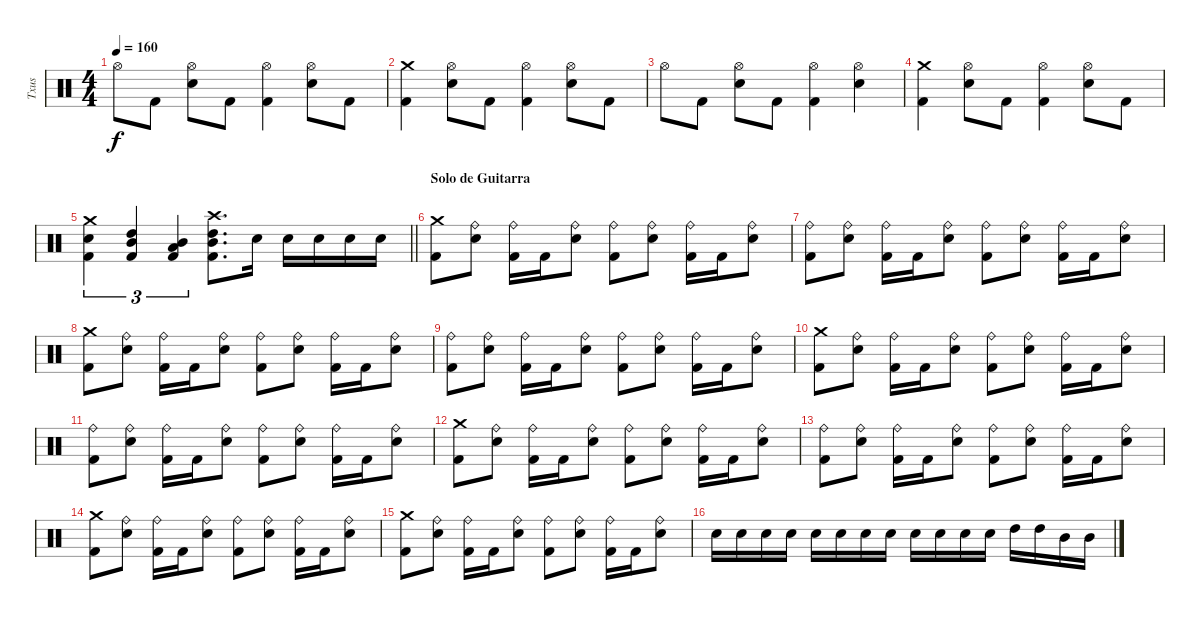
\track ("Txus" "Txus") {instrument percussion}
\staff {score}
\articulation defaults
\ts (4 4)
\tempo 160
\clef neutral
\ks c "Hi-Hat (open)".8{dy f} "Kick (hit) 2".8
("Hi-Hat (open)" "Snare (hit) 2").8 "Kick (hit) 2".8 ("Hi-Hat (open)" "Kick (hit) 2").4 ("Hi-Hat (open)" "Snare (hit) 2").8 "Kick (hit) 2".8 |
("Crash medium (hit)" "Kick (hit) 2").4 ("Hi-Hat (open)" "Snare (hit) 2").8 "Kick (hit) 2".8 ("Hi-Hat (open)" "Kick (hit) 2").4 ("Hi-Hat (open)" "Snare (hit) 2").8 "Kick (hit) 2".8 |
"Hi-Hat (open)".8 "Kick (hit) 2".8 ("Hi-Hat (open)" "Snare (hit) 2").8 "Kick (hit) 2".8 ("Hi-Hat (open)" "Kick (hit) 2").4 ("Hi-Hat (open)" "Snare (hit) 2").4 |
("Crash medium (hit)" "Kick (hit) 2").4 ("Hi-Hat (open)" "Snare (hit) 2").8 "Kick (hit) 2".8 ("Hi-Hat (open)" "Kick (hit) 2").4 ("Hi-Hat (open)" "Snare (hit) 2").8 "Kick (hit) 2".8 |
\barLineRight lightlight
("Crash medium (hit)" "Snare (hit) 2" "Kick (hit) 2").4{tu (3 2)} ("High Tom (hit)" "Mid Tom (hit)" "Kick (hit) 2").4{tu (3 2)} ("Mid Tom (hit)" "Low Tom (hit)" "Kick (hit) 2").4{tu (3 2)} ("Crash high (hit)" "High Tom (hit)" "Mid Tom (hit)" "Kick (hit) 2").8{d} "Snare (hit) 2".16 "Snare (hit) 2".16 "Snare (hit) 2".16 "Snare (hit) 2".16 "Snare (hit) 2".16 |
\section ("" "Solo de Guitarra")
("Crash medium (hit)" "Kick (hit) 2").8 ("Ride (bell)" "Snare (hit) 2").8 ("Ride (bell)" "Kick (hit) 2").16 "Kick (hit) 2".16 ("Ride (bell)" "Snare (hit) 2").8 ("Ride (bell)" "Kick (hit) 2").8 ("Ride (bell)" "Snare (hit) 2").8 ("Ride (bell)" "Kick (hit) 2").16 "Kick (hit) 2".16 ("Ride (bell)" "Snare (hit) 2").8 |
("Ride (bell)" "Kick (hit) 2").8 ("Ride (bell)" "Snare (hit) 2").8 ("Ride (bell)" "Kick (hit) 2").16 "Kick (hit) 2".16 ("Ride (bell)" "Snare (hit) 2").8 ("Ride (bell)" "Kick (hit) 2").8 ("Ride (bell)" "Snare (hit) 2").8 ("Ride (bell)" "Kick (hit) 2").16 "Kick (hit) 2".16 ("Ride (bell)" "Snare (hit) 2").8 |
("Crash medium (hit)" "Kick (hit) 2").8 ("Ride (bell)" "Snare (hit) 2").8 ("Ride (bell)" "Kick (hit) 2").16 "Kick (hit) 2".16 ("Ride (bell)" "Snare (hit) 2").8 ("Ride (bell)" "Kick (hit) 2").8 ("Ride (bell)" "Snare (hit) 2").8 ("Ride (bell)" "Kick (hit) 2").16 "Kick (hit) 2".16 ("Ride (bell)" "Snare (hit) 2").8 |
("Ride (bell)" "Kick (hit) 2").8 ("Ride (bell)" "Snare (hit) 2").8 ("Ride (bell)" "Kick (hit) 2").16 "Kick (hit) 2".16 ("Ride (bell)" "Snare (hit) 2").8 ("Ride (bell)" "Kick (hit) 2").8 ("Ride (bell)" "Snare (hit) 2").8 ("Ride (bell)" "Kick (hit) 2").16 "Kick (hit) 2".16 ("Ride (bell)" "Snare (hit) 2").8 |
("Crash medium (hit)" "Kick (hit) 2").8 ("Ride (bell)" "Snare (hit) 2").8 ("Ride (bell)" "Kick (hit) 2").16 "Kick (hit) 2".16 ("Ride (bell)" "Snare (hit) 2").8 ("Ride (bell)" "Kick (hit) 2").8 ("Ride (bell)" "Snare (hit) 2").8 ("Ride (bell)" "Kick (hit) 2").16 "Kick (hit) 2".16 ("Ride (bell)" "Snare (hit) 2").8 |
("Ride (bell)" "Kick (hit) 2").8 ("Ride (bell)" "Snare (hit) 2").8 ("Ride (bell)" "Kick (hit) 2").16 "Kick (hit) 2".16 ("Ride (bell)" "Snare (hit) 2").8 ("Ride (bell)" "Kick (hit) 2").8 ("Ride (bell)" "Snare (hit) 2").8 ("Ride (bell)" "Kick (hit) 2").16 "Kick (hit) 2".16 ("Ride (bell)" "Snare (hit) 2").8 |
("Crash medium (hit)" "Kick (hit) 2").8 ("Ride (bell)" "Snare (hit) 2").8 ("Ride (bell)" "Kick (hit) 2").16 "Kick (hit) 2".16 ("Ride (bell)" "Snare (hit) 2").8 ("Ride (bell)" "Kick (hit) 2").8 ("Ride (bell)" "Snare (hit) 2").8 ("Ride (bell)" "Kick (hit) 2").16 "Kick (hit) 2".16 ("Ride (bell)" "Snare (hit) 2").8 |
("Ride (bell)" "Kick (hit) 2").8 ("Ride (bell)" "Snare (hit) 2").8 ("Ride (bell)" "Kick (hit) 2").16 "Kick (hit) 2".16 ("Ride (bell)" "Snare (hit) 2").8 ("Ride (bell)" "Kick (hit) 2").8 ("Ride (bell)" "Snare (hit) 2").8 ("Ride (bell)" "Kick (hit) 2").16 "Kick (hit) 2".16 ("Ride (bell)" "Snare (hit) 2").8 |
("Crash medium (hit)" "Kick (hit) 2").8 ("Ride (bell)" "Snare (hit) 2").8 ("Ride (bell)" "Kick (hit) 2").16 "Kick (hit) 2".16 ("Ride (bell)" "Snare (hit) 2").8 ("Ride (bell)" "Kick (hit) 2").8 ("Ride (bell)" "Snare (hit) 2").8 ("Ride (bell)" "Kick (hit) 2").16 "Kick (hit) 2".16 ("Ride (bell)" "Snare (hit) 2").8 |
("Crash medium (hit)" "Kick (hit) 2").8 ("Ride (bell)" "Snare (hit) 2").8 ("Ride (bell)" "Kick (hit) 2").16 "Kick (hit) 2".16 ("Ride (bell)" "Snare (hit) 2").8 ("Ride (bell)" "Kick (hit) 2").8 ("Ride (bell)" "Snare (hit) 2").8 ("Ride (bell)" "Kick (hit) 2").16 "Kick (hit) 2".16 ("Ride (bell)" "Snare (hit) 2").8 |
"Snare (hit) 2".16 "Snare (hit) 2".16 "Snare (hit) 2".16 "Snare (hit) 2".16 "Snare (hit) 2".16 "Snare (hit) 2".16 "Snare (hit) 2".16 "Snare (hit) 2".16 "Snare (hit) 2".16 "Snare (hit) 2".16 "Snare (hit) 2".16 "Snare (hit) 2".16 "High Tom (hit)".16 "High Tom (hit)".16 "Mid Tom (hit)".16 "Mid Tom (hit)".16
